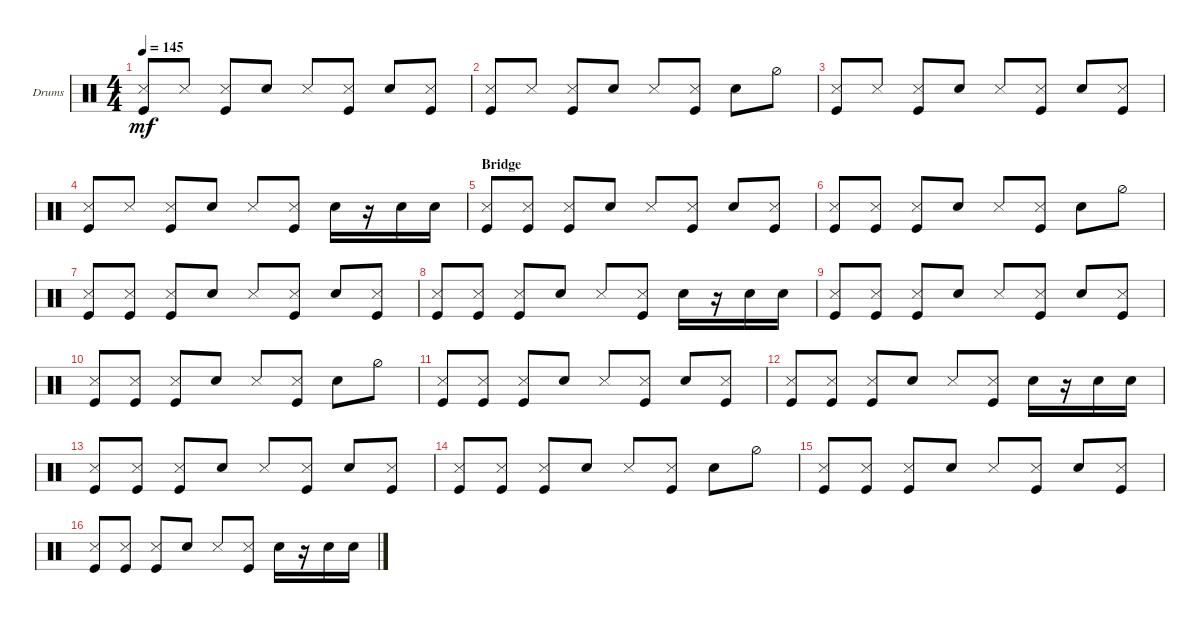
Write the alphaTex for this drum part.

\defaultSystemsLayout 4
\bracketExtendMode groupsimilarinstruments
\firstSystemTrackNameOrientation horizontal
\otherSystemsTrackNameOrientation horizontal
\track ("Matt Uychich" "Drums") {instrument percussion}
\staff {score}
\articulation defaults
\ts (4 4)
\tempo 145
\clef neutral
\scale
0.333333
\ks c
("Snare (side stick) 3" "Kick (hit)").8{dy mf} "Snare (side stick) 3".8 ("Snare (side stick) 3" "Kick (hit)").8 "Snare (hit) 2".8 "Snare (side stick) 3".8 ("Snare (side stick) 3" "Kick (hit)").8 "Snare (hit) 2".8 ("Snare (side stick) 3" "Kick (hit)").8 |
\scale
0.333333 ("Snare (side stick) 3" "Kick (hit)").8 "Snare (side stick) 3".8 ("Snare (side stick) 3" "Kick (hit)").8 "Snare (hit) 2".8 "Snare (side stick) 3".8 ("Snare (side stick) 3" "Kick (hit)").8 "Snare (hit) 2".8 "Hi-Hat (half)".8 |
\scale
0.333333 ("Snare (side stick) 3" "Kick (hit)").8 "Snare (side stick) 3".8 ("Snare (side stick) 3" "Kick (hit)").8 "Snare (hit) 2".8 "Snare (side stick) 3".8 ("Snare (side stick) 3" "Kick (hit)").8 "Snare (hit) 2".8 ("Snare (side stick) 3" "Kick (hit)").8 |
\scale
0.333333 ("Snare (side stick) 3" "Kick (hit)").8 "Snare (side stick) 3".8 ("Snare (side stick) 3" "Kick (hit)").8 "Snare (hit) 2".8 "Snare (side stick) 3".8 ("Snare (side stick) 3" "Kick (hit)").8 "Snare (hit) 2".16 r.16 "Snare (hit) 2".16 "Snare (hit) 2".16 |
\section ("" "Bridge")
\scale
0.333333 ("Snare (side stick) 3" "Kick (hit)").8 ("Snare (side stick) 3" "Kick (hit)").8 ("Snare (side stick) 3" "Kick (hit)").8 "Snare (hit) 2".8 "Snare (side stick) 3".8 ("Snare (side stick) 3" "Kick (hit)").8 "Snare (hit) 2".8 ("Snare (side stick) 3" "Kick (hit)").8 |
\scale
0.333333 ("Snare (side stick) 3" "Kick (hit)").8 ("Snare (side stick) 3" "Kick (hit)").8 ("Snare (side stick) 3" "Kick (hit)").8 "Snare (hit) 2".8 "Snare (side stick) 3".8 ("Snare (side stick) 3" "Kick (hit)").8 "Snare (hit) 2".8 "Hi-Hat (half)".8 |
\scale
0.333333 ("Snare (side stick) 3" "Kick (hit)").8 ("Snare (side stick) 3" "Kick (hit)").8 ("Snare (side stick) 3" "Kick (hit)").8 "Snare (hit) 2".8 "Snare (side stick) 3".8 ("Snare (side stick) 3" "Kick (hit)").8 "Snare (hit) 2".8 ("Snare (side stick) 3" "Kick (hit)").8 |
\scale
0.333333 ("Snare (side stick) 3" "Kick (hit)").8 ("Snare (side stick) 3" "Kick (hit)").8 ("Snare (side stick) 3" "Kick (hit)").8 "Snare (hit) 2".8 "Snare (side stick) 3".8 ("Snare (side stick) 3" "Kick (hit)").8 "Snare (hit) 2".16 r.16 "Snare (hit) 2".16 "Snare (hit) 2".16 |
\scale
0.333333 ("Snare (side stick) 3" "Kick (hit)").8 ("Snare (side stick) 3" "Kick (hit)").8 ("Snare (side stick) 3" "Kick (hit)").8 "Snare (hit) 2".8 "Snare (side stick) 3".8 ("Snare (side stick) 3" "Kick (hit)").8 "Snare (hit) 2".8 ("Snare (side stick) 3" "Kick (hit)").8 |
\scale
0.333333 ("Snare (side stick) 3" "Kick (hit)").8 ("Snare (side stick) 3" "Kick (hit)").8 ("Snare (side stick) 3" "Kick (hit)").8 "Snare (hit) 2".8 "Snare (side stick) 3".8 ("Snare (side stick) 3" "Kick (hit)").8 "Snare (hit) 2".8 "Hi-Hat (half)".8 |
\scale
0.333333 ("Snare (side stick) 3" "Kick (hit)").8 ("Snare (side stick) 3" "Kick (hit)").8 ("Snare (side stick) 3" "Kick (hit)").8 "Snare (hit) 2".8 "Snare (side stick) 3".8 ("Snare (side stick) 3" "Kick (hit)").8 "Snare (hit) 2".8 ("Snare (side stick) 3" "Kick (hit)").8 |
\scale
0.333333 ("Snare (side stick) 3" "Kick (hit)").8 ("Snare (side stick) 3" "Kick (hit)").8 ("Snare (side stick) 3" "Kick (hit)").8 "Snare (hit) 2".8 "Snare (side stick) 3".8 ("Snare (side stick) 3" "Kick (hit)").8 "Snare (hit) 2".16 r.16 "Snare (hit) 2".16 "Snare (hit) 2".16 |
\scale
0.333333 ("Snare (side stick) 3" "Kick (hit)").8 ("Snare (side stick) 3" "Kick (hit)").8 ("Snare (side stick) 3" "Kick (hit)").8 "Snare (hit) 2".8 "Snare (side stick) 3".8 ("Snare (side stick) 3" "Kick (hit)").8 "Snare (hit) 2".8 ("Snare (side stick) 3" "Kick (hit)").8 |
\scale
0.333333 ("Snare (side stick) 3" "Kick (hit)").8 ("Snare (side stick) 3" "Kick (hit)").8 ("Snare (side stick) 3" "Kick (hit)").8 "Snare (hit) 2".8 "Snare (side stick) 3".8 ("Snare (side stick) 3" "Kick (hit)").8 "Snare (hit) 2".8 "Hi-Hat (half)".8 |
\scale
0.333333 ("Snare (side stick) 3" "Kick (hit)").8 ("Snare (side stick) 3" "Kick (hit)").8 ("Snare (side stick) 3" "Kick (hit)").8 "Snare (hit) 2".8 "Snare (side stick) 3".8 ("Snare (side stick) 3" "Kick (hit)").8 "Snare (hit) 2".8 ("Snare (side stick) 3" "Kick (hit)").8 |
\scale
0.333333 ("Snare (side stick) 3" "Kick (hit)").8 ("Snare (side stick) 3" "Kick (hit)").8 ("Snare (side stick) 3" "Kick (hit)").8 "Snare (hit) 2".8 "Snare (side stick) 3".8 ("Snare (side stick) 3" "Kick (hit)").8 "Snare (hit) 2".16 r.16 "Snare (hit) 2".16 "Snare (hit) 2".16
